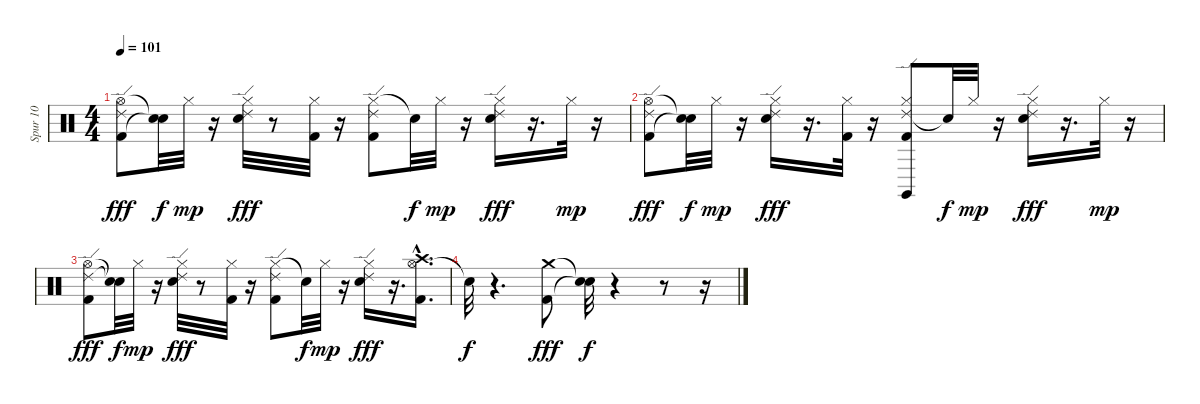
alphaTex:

\track ("Spur 10" "Spur 10") {instrument percussion}
\staff {score}
\articulation defaults
\ts (4 4)
\tempo 101
\clef neutral
\ks c
("Hi-Hat (open)" "Kick (hit) 2" "Ride (edge) 2").8{dy fff} ("Snare (hit)"{t} "Snare (hit)"{t}).32{dy f} "Hi-Hat (closed)".32{dy mp} r.16 ("Hi-Hat (closed)" "Snare (hit) 2" "Ride (edge) 2").32{dy fff} r.8 ("Hi-Hat (closed)" "Kick (hit) 2").32 r.16 ("Hi-Hat (closed)" "Kick (hit) 2" "Ride (edge) 2").8 "Snare (hit)"{t}.32{dy f} "Hi-Hat (closed)".32{dy mp} r.16 ("Hi-Hat (closed)" "Snare (hit) 2" "Ride (edge) 2").16{dy fff} r.16{d} "Hi-Hat (closed)".32{dy mp} r.16 |
("Hi-Hat (open)" "Kick (hit) 2" "Ride (edge) 2").8{dy fff} ("Snare (hit)"{t} "Snare (hit)"{t}).32{dy f} "Hi-Hat (closed)".32{dy mp} r.16 ("Hi-Hat (closed)" "Snare (hit) 2" "Ride (edge) 2").16{dy fff} r.16{d} ("Hi-Hat (closed)" "Kick (hit) 2").32 r.16 ("Ride (edge) 2" "Claves (hit)" "Hi-Hat (closed)" "Kick (hit) 2").8 "Snare (hit)"{t}.32{dy f} "Hi-Hat (closed)".32{dy mp} r.16 ("Hi-Hat (closed)" "Snare (hit) 2" "Ride (edge) 2").16{dy fff} r.16{d} "Hi-Hat (closed)".32{dy mp} r.16 |
("Ride (edge) 2" "Hi-Hat (open)" "Kick (hit) 2").8{dy fff} ("Snare (hit)"{t} "Snare (hit)"{t}).32{dy f} "Hi-Hat (closed)".32{dy mp} r.16 ("Ride (edge) 2" "Hi-Hat (closed)" "Snare (hit) 2").32{dy fff} r.8 ("Hi-Hat (closed)" "Kick (hit) 2").32 r.16 ("Hi-Hat (closed)" "Kick (hit) 2" "Ride (edge) 2").8 "Snare (hit)"{t}.32{dy f} "Hi-Hat (closed)".32{dy mp} r.16 ("Hi-Hat (closed)" "Snare (hit) 2" "Ride (edge) 2").16{dy fff} r.16{d} ("Hi-Hat (open)"{hac} "Kick (hit) 2"{hac} "Crash high (hit)").16{d} |
"Snare (hit)"{t}.32{dy f} r.4{d} ("Kick (hit) 2" "Crash medium (hit)").8{dy fff} ("Snare (hit)"{t} "Snare (hit)"{t}).32{dy f} r.4 r.8 r.16
